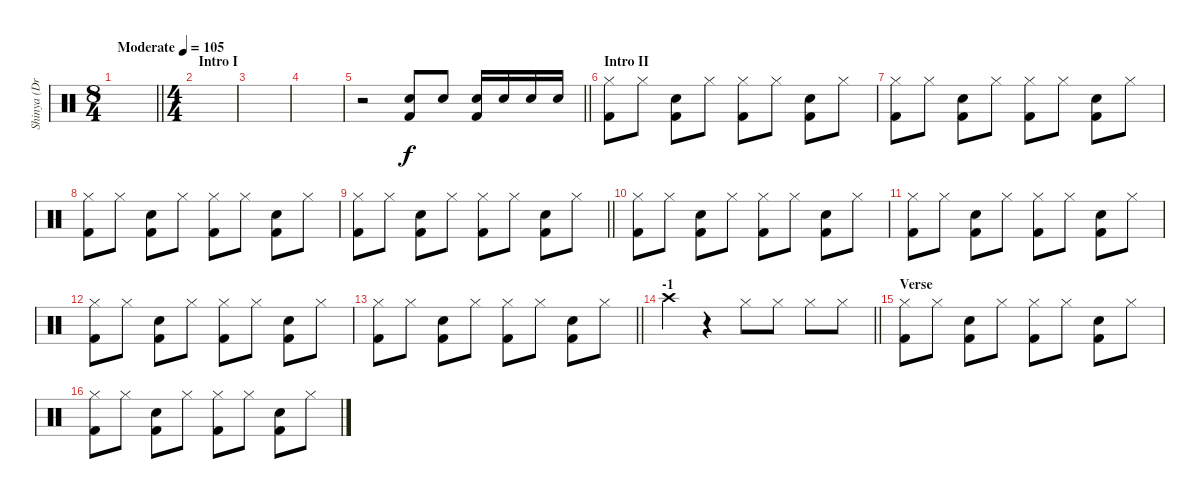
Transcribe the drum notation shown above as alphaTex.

\track ("Shinya (Drums)" "Shinya (Dr") {instrument percussion}
\staff {score}
\articulation defaults
\ts (8 4)
\tempo (105 "Moderate")
\clef neutral
\barLineRight lightlight
\ks c
|
\ts (4 4)
\section ("" "Intro I")
|
|
|
\barLineRight lightlight
r.2 ("Snare (hit) 2" "Kick (hit) 2").8 "Snare (hit) 2".8 ("Snare (hit) 2" "Kick (hit) 2").16 "Snare (hit) 2".16 "Snare (hit) 2".16 "Snare (hit) 2".16 |
\section ("" "Intro II")
("Hi-Hat (closed)" "Kick (hit) 2").8 "Hi-Hat (closed)".8 ("Snare (hit) 2" "Kick (hit) 2").8 "Hi-Hat (closed)".8 ("Hi-Hat (closed)" "Kick (hit) 2").8 "Hi-Hat (closed)".8 ("Snare (hit) 2" "Kick (hit) 2").8 "Hi-Hat (closed)".8 |
("Hi-Hat (closed)" "Kick (hit) 2").8 "Hi-Hat (closed)".8 ("Snare (hit) 2" "Kick (hit) 2").8 "Hi-Hat (closed)".8 ("Hi-Hat (closed)" "Kick (hit) 2").8 "Hi-Hat (closed)".8 ("Snare (hit) 2" "Kick (hit) 2").8 "Hi-Hat (closed)".8 |
("Hi-Hat (closed)" "Kick (hit) 2").8 "Hi-Hat (closed)".8 ("Snare (hit) 2" "Kick (hit) 2").8 "Hi-Hat (closed)".8 ("Hi-Hat (closed)" "Kick (hit) 2").8 "Hi-Hat (closed)".8 ("Snare (hit) 2" "Kick (hit) 2").8 "Hi-Hat (closed)".8 |
\barLineRight lightlight
("Hi-Hat (closed)" "Kick (hit) 2").8 "Hi-Hat (closed)".8 ("Snare (hit) 2" "Kick (hit) 2").8 "Hi-Hat (closed)".8 ("Hi-Hat (closed)" "Kick (hit) 2").8 "Hi-Hat (closed)".8 ("Snare (hit) 2" "Kick (hit) 2").8 "Hi-Hat (closed)".8 |
("Hi-Hat (closed)" "Kick (hit) 2").8 "Hi-Hat (closed)".8 ("Snare (hit) 2" "Kick (hit) 2").8 "Hi-Hat (closed)".8 ("Hi-Hat (closed)" "Kick (hit) 2").8 "Hi-Hat (closed)".8 ("Snare (hit) 2" "Kick (hit) 2").8 "Hi-Hat (closed)".8 |
("Hi-Hat (closed)" "Kick (hit) 2").8 "Hi-Hat (closed)".8 ("Snare (hit) 2" "Kick (hit) 2").8 "Hi-Hat (closed)".8 ("Hi-Hat (closed)" "Kick (hit) 2").8 "Hi-Hat (closed)".8 ("Snare (hit) 2" "Kick (hit) 2").8 "Hi-Hat (closed)".8 |
("Hi-Hat (closed)" "Kick (hit) 2").8 "Hi-Hat (closed)".8 ("Snare (hit) 2" "Kick (hit) 2").8 "Hi-Hat (closed)".8 ("Hi-Hat (closed)" "Kick (hit) 2").8 "Hi-Hat (closed)".8 ("Snare (hit) 2" "Kick (hit) 2").8 "Hi-Hat (closed)".8 |
\barLineRight lightlight
("Hi-Hat (closed)" "Kick (hit) 2").8 "Hi-Hat (closed)".8 ("Snare (hit) 2" "Kick (hit) 2").8 "Hi-Hat (closed)".8 ("Hi-Hat (closed)" "Kick (hit) 2").8 "Hi-Hat (closed)".8 ("Snare (hit) 2" "Kick (hit) 2").8 "Hi-Hat (closed)".8 |
\section ("" "-1")
\barLineRight lightlight "Crash high (hit)".4
r.4 "Hi-Hat (closed)".8 "Hi-Hat (closed)".8 "Hi-Hat (closed)".8 "Hi-Hat (closed)".8 |
\section ("" "Verse")
("Hi-Hat (closed)" "Kick (hit) 2").8 "Hi-Hat (closed)".8 ("Snare (hit) 2" "Kick (hit) 2").8 "Hi-Hat (closed)".8 ("Hi-Hat (closed)" "Kick (hit) 2").8 "Hi-Hat (closed)".8 ("Snare (hit) 2" "Kick (hit) 2").8 "Hi-Hat (closed)".8 |
("Hi-Hat (closed)" "Kick (hit) 2").8 "Hi-Hat (closed)".8 ("Snare (hit) 2" "Kick (hit) 2").8 "Hi-Hat (closed)".8 ("Hi-Hat (closed)" "Kick (hit) 2").8 "Hi-Hat (closed)".8 ("Snare (hit) 2" "Kick (hit) 2").8 "Hi-Hat (closed)".8
